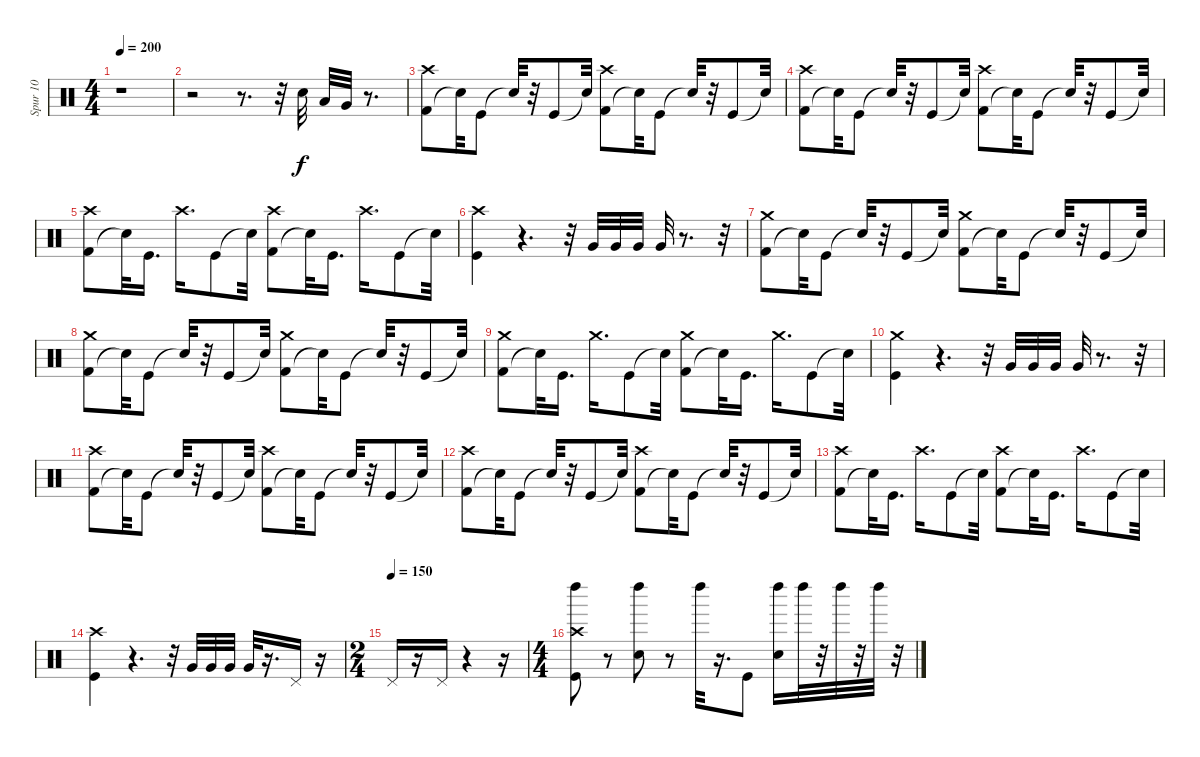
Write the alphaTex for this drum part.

\track ("Spur 10" "Spur 10") {instrument percussion}
\staff {score}
\articulation defaults
\ts (4 4)
\tempo 200
\clef neutral
\ks c
r.1{dy f} |
r.2 r.8{d} r.32 "Electric Snare (hit)".32 "Low Tom (hit)".32 "Very Low Tom (hit)".32 r.8{d} |
("Kick (hit) 2" "Crash high (hit)").8 "Snare (hit)"{t}.32 "Kick (hit)".8 "Snare (hit)"{t}.32 r.32 "Kick (hit)".8 "Snare (hit)"{t}.32 ("Kick (hit) 2" "Crash high (hit)").8 "Snare (hit)"{t}.32 "Kick (hit)".8 "Snare (hit)"{t}.32 r.32 "Kick (hit)".8 "Snare (hit)"{t}.32 |
("Kick (hit) 2" "Crash high (hit)").8 "Snare (hit)"{t}.32 "Kick (hit)".8 "Snare (hit)"{t}.32 r.32 "Kick (hit)".8 "Snare (hit)"{t}.32 ("Kick (hit) 2" "Crash high (hit)").8 "Snare (hit)"{t}.32 "Kick (hit)".8 "Snare (hit)"{t}.32 r.32 "Kick (hit)".8 "Snare (hit)"{t}.32 |
("Kick (hit) 2" "Crash high (hit)").8 "Snare (hit)"{t}.32 "Kick (hit)".16{d} "Crash high (hit)".16{d} "Kick (hit)".8 "Snare (hit)"{t}.32 ("Kick (hit) 2" "Crash high (hit)").8 "Snare (hit)"{t}.32 "Kick (hit)".16{d} "Crash high (hit)".16{d} "Kick (hit)".8 "Snare (hit)"{t}.32 |
("Kick (hit)" "Crash high (hit)").4 r.4{d} r.32 "Very Low Tom (hit)".32 "Very Low Tom (hit)".32 "Very Low Tom (hit)".32 "Very Low Tom (hit)".32 r.8{d} r.32 |
("Kick (hit) 2" "Crash medium (hit)").8 "Snare (hit)"{t}.32 "Kick (hit)".8 "Snare (hit)"{t}.32 r.32 "Kick (hit)".8 "Snare (hit)"{t}.32 ("Kick (hit) 2" "Crash medium (hit)").8 "Snare (hit)"{t}.32 "Kick (hit)".8 "Snare (hit)"{t}.32 r.32 "Kick (hit)".8 "Snare (hit)"{t}.32 |
("Kick (hit) 2" "Crash medium (hit)").8 "Snare (hit)"{t}.32 "Kick (hit)".8 "Snare (hit)"{t}.32 r.32 "Kick (hit)".8 "Snare (hit)"{t}.32 ("Kick (hit) 2" "Crash medium (hit)").8 "Snare (hit)"{t}.32 "Kick (hit)".8 "Snare (hit)"{t}.32 r.32 "Kick (hit)".8 "Snare (hit)"{t}.32 |
("Kick (hit) 2" "Crash medium (hit)").8 "Snare (hit)"{t}.32 "Kick (hit)".16{d} "Crash medium (hit)".16{d} "Kick (hit)".8 "Snare (hit)"{t}.32 ("Kick (hit) 2" "Crash medium (hit)").8 "Snare (hit)"{t}.32 "Kick (hit)".16{d} "Crash medium (hit)".16{d} "Kick (hit)".8 "Snare (hit)"{t}.32 |
("Kick (hit)" "Crash medium (hit)").4 r.4{d} r.32 "Very Low Tom (hit)".32 "Very Low Tom (hit)".32 "Very Low Tom (hit)".32 "Very Low Tom (hit)".32 r.8{d} r.32 |
("Kick (hit) 2" "Crash high (hit)").8 "Snare (hit)"{t}.32 "Kick (hit)".8 "Snare (hit)"{t}.32 r.32 "Kick (hit)".8 "Snare (hit)"{t}.32 ("Kick (hit) 2" "Crash high (hit)").8 "Snare (hit)"{t}.32 "Kick (hit)".8 "Snare (hit)"{t}.32 r.32 "Kick (hit)".8 "Snare (hit)"{t}.32 |
("Kick (hit) 2" "Crash high (hit)").8 "Snare (hit)"{t}.32 "Kick (hit)".8 "Snare (hit)"{t}.32 r.32 "Kick (hit)".8 "Snare (hit)"{t}.32 ("Kick (hit) 2" "Crash high (hit)").8 "Snare (hit)"{t}.32 "Kick (hit)".8 "Snare (hit)"{t}.32 r.32 "Kick (hit)".8 "Snare (hit)"{t}.32 |
("Kick (hit) 2" "Crash high (hit)").8 "Snare (hit)"{t}.32 "Kick (hit)".16{d} "Crash high (hit)".16{d} "Kick (hit)".8 "Snare (hit)"{t}.32 ("Kick (hit) 2" "Crash high (hit)").8 "Snare (hit)"{t}.32 "Kick (hit)".16{d} "Crash high (hit)".16{d} "Kick (hit)".8 "Snare (hit)"{t}.32 |
("Kick (hit)" "Crash high (hit)").4 r.4{d} r.32 "Very Low Tom (hit)".32 "Very Low Tom (hit)".32 "Very Low Tom (hit)".32 "Very Low Tom (hit)".32 r.16{d} "Pedal Hi-Hat (hit)".16 r.16 |
\ts (2 4)
\tempo (150)
"Pedal Hi-Hat (hit)".16 r.16 "Pedal Hi-Hat (hit)".16 r.4 r.16 |
\ts (4 4)
("Kick (hit)" "Crash high (hit)" "Left Maraca (hit)").8 r.8 ("Snare (hit) 2" "Left Maraca (hit)").8 r.8 "Left Maraca (hit)".32 r.16{d} "Kick (hit)".8 ("Snare (hit) 2" "Left Maraca (hit)").16 "Left Maraca (hit)".32 r.32 "Left Maraca (hit)".32 r.32 "Left Maraca (hit)".32 r.32
